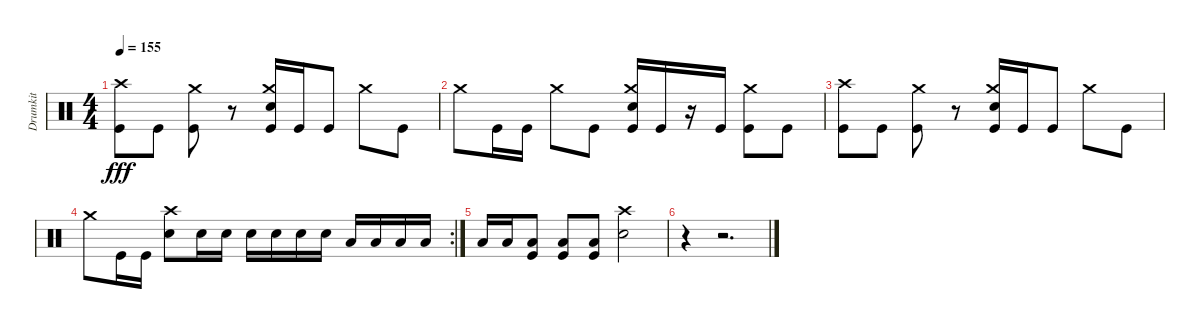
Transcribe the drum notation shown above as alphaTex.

\track ("Drumkit" "Drumkit") {instrument percussion}
\staff {score}
\articulation defaults
\ts (4 4)
\tempo 155
\clef neutral
\ks c
("Crash high (hit)" "Kick (hit)").8{dy fff} "Kick (hit)".8 ("Crash medium (hit)" "Kick (hit)").8 r.8 ("Crash medium (hit)" "Snare (hit) 2" "Kick (hit)").16 "Kick (hit)".16 "Kick (hit)".8 "Crash medium (hit)".8 "Kick (hit)".8 |
"Crash medium (hit)".8 "Kick (hit)".16 "Kick (hit)".16 "Crash medium (hit)".8 "Kick (hit)".8 ("Crash medium (hit)" "Snare (hit) 2" "Kick (hit)").16 "Kick (hit)".16 r.16 "Kick (hit)".16 ("Crash medium (hit)" "Kick (hit)").8 "Kick (hit)".8 |
("Crash high (hit)" "Kick (hit)").8 "Kick (hit)".8 ("Crash medium (hit)" "Kick (hit)").8 r.8 ("Crash medium (hit)" "Snare (hit) 2" "Kick (hit)").16 "Kick (hit)".16 "Kick (hit)".8 "Crash medium (hit)".8 "Kick (hit)".8 |
\rc 2 "Crash medium (hit)".8 "Kick (hit)".16 "Kick (hit)".16
("Crash high (hit)" "Snare (hit) 2").8 "Snare (hit) 2".16 "Snare (hit) 2".16 "Snare (hit) 2".16 "Snare (hit) 2".16 "Snare (hit) 2".16 "Snare (hit) 2".16 "Low Tom (hit)".16 "Low Tom (hit)".16 "Low Tom (hit)".16 "Low Tom (hit)".16 |
"Low Tom (hit)".16 "Low Tom (hit)".16 ("Low Floor Tom (hit)" "Kick (hit)").8 ("Low Floor Tom (hit)" "Kick (hit)").8 ("Low Floor Tom (hit)" "Kick (hit)").8 ("Crash high (hit)" "Snare (hit) 2").2 |
r.4 r.2{d}
